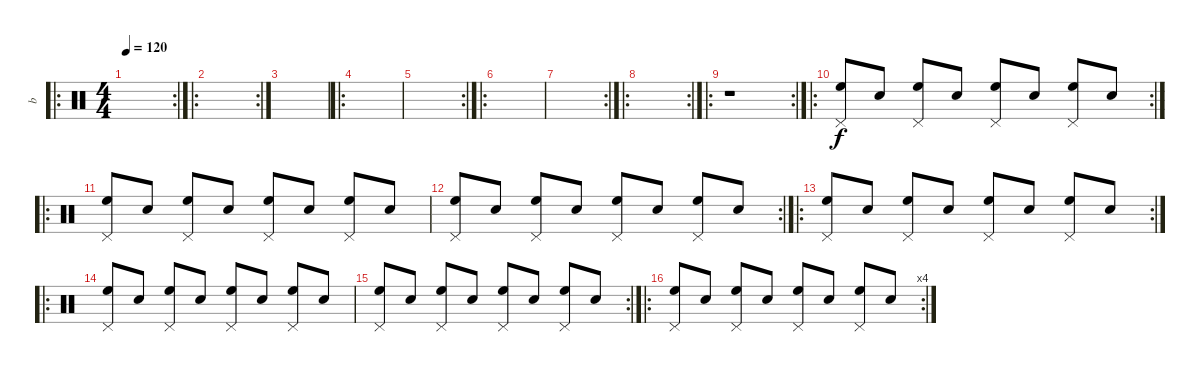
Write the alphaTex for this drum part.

\track ("b" "b") {instrument percussion}
\staff {score}
\articulation defaults
\ro
\rc 2
\ts (4 4)
\tempo 120
\clef neutral
\ks c
|
\ro
\rc 2
|
|
\ro
|
\rc 2
|
\ro
|
\rc 2
|
\ro
\rc 2
|
\ro
\rc 2
r.1{volume 9} |
\ro
\rc 2
("Pedal Hi-Hat (hit)" "High Floor Tom (hit)").8 "Electric Snare (hit)".8 ("Pedal Hi-Hat (hit)" "High Floor Tom (hit)").8 "Electric Snare (hit)".8 ("Pedal Hi-Hat (hit)" "High Floor Tom (hit)").8 "Electric Snare (hit)".8 ("Pedal Hi-Hat (hit)" "High Floor Tom (hit)").8 "Electric Snare (hit)".8 |
\ro
("Pedal Hi-Hat (hit)" "High Floor Tom (hit)").8 "Electric Snare (hit)".8 ("Pedal Hi-Hat (hit)" "High Floor Tom (hit)").8 "Electric Snare (hit)".8 ("Pedal Hi-Hat (hit)" "High Floor Tom (hit)").8 "Electric Snare (hit)".8 ("Pedal Hi-Hat (hit)" "High Floor Tom (hit)").8 "Electric Snare (hit)".8 |
\rc 2
("Pedal Hi-Hat (hit)" "High Floor Tom (hit)").8 "Electric Snare (hit)".8 ("Pedal Hi-Hat (hit)" "High Floor Tom (hit)").8 "Electric Snare (hit)".8 ("Pedal Hi-Hat (hit)" "High Floor Tom (hit)").8 "Electric Snare (hit)".8 ("Pedal Hi-Hat (hit)" "High Floor Tom (hit)").8 "Electric Snare (hit)".8 |
\ro
\rc 2
("Pedal Hi-Hat (hit)" "High Floor Tom (hit)").8 "Electric Snare (hit)".8 ("Pedal Hi-Hat (hit)" "High Floor Tom (hit)").8 "Electric Snare (hit)".8 ("Pedal Hi-Hat (hit)" "High Floor Tom (hit)").8 "Electric Snare (hit)".8 ("Pedal Hi-Hat (hit)" "High Floor Tom (hit)").8 "Electric Snare (hit)".8 |
\ro
("Pedal Hi-Hat (hit)" "High Floor Tom (hit)").8 "Electric Snare (hit)".8 ("Pedal Hi-Hat (hit)" "High Floor Tom (hit)").8 "Electric Snare (hit)".8 ("Pedal Hi-Hat (hit)" "High Floor Tom (hit)").8 "Electric Snare (hit)".8 ("Pedal Hi-Hat (hit)" "High Floor Tom (hit)").8 "Electric Snare (hit)".8 |
\rc 2
("Pedal Hi-Hat (hit)" "High Floor Tom (hit)").8 "Electric Snare (hit)".8 ("Pedal Hi-Hat (hit)" "High Floor Tom (hit)").8 "Electric Snare (hit)".8 ("Pedal Hi-Hat (hit)" "High Floor Tom (hit)").8 "Electric Snare (hit)".8 ("Pedal Hi-Hat (hit)" "High Floor Tom (hit)").8 "Electric Snare (hit)".8 |
\ro
\rc 4
("Pedal Hi-Hat (hit)" "High Floor Tom (hit)").8 "Electric Snare (hit)".8 ("Pedal Hi-Hat (hit)" "High Floor Tom (hit)").8 "Electric Snare (hit)".8 ("Pedal Hi-Hat (hit)" "High Floor Tom (hit)").8 "Electric Snare (hit)".8 ("Pedal Hi-Hat (hit)" "High Floor Tom (hit)").8 "Electric Snare (hit)".8
